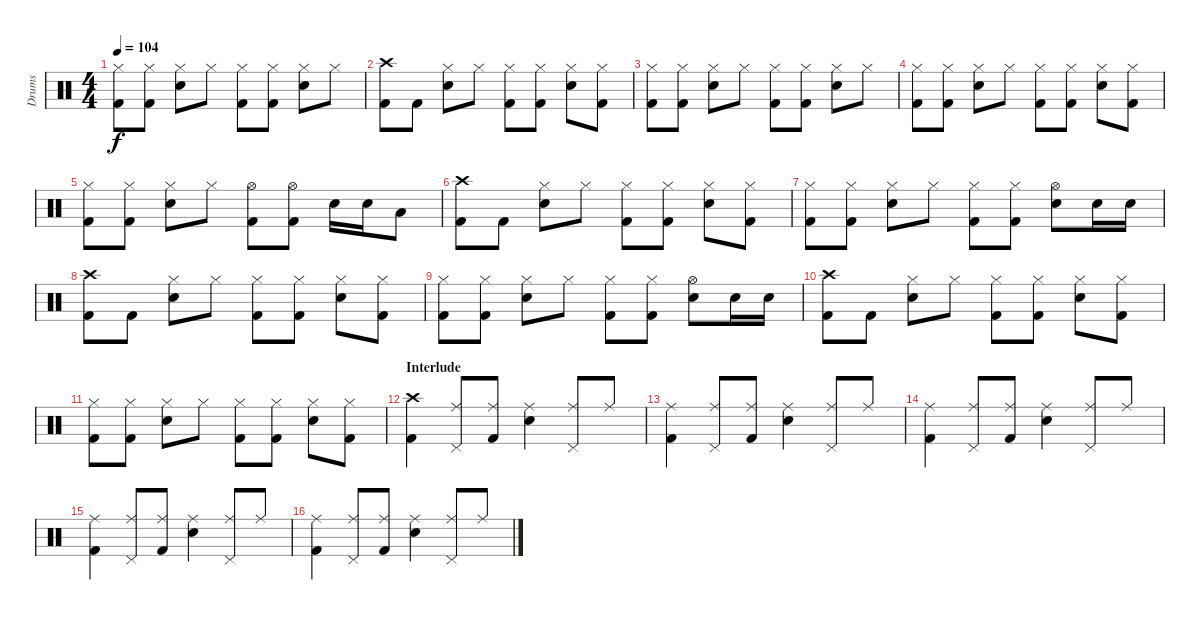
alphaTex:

\track ("Drums" "Drums") {instrument percussion}
\staff {score}
\articulation defaults
\ts (4 4)
\tempo 104
\clef neutral
\ks c
("Hi-Hat (closed)" "Kick (hit) 2").8{dy f} ("Hi-Hat (closed)" "Kick (hit) 2").8 ("Hi-Hat (closed)" "Electric Snare (hit)").8 "Hi-Hat (closed)".8 ("Hi-Hat (closed)" "Kick (hit) 2").8 ("Hi-Hat (closed)" "Kick (hit) 2").8 ("Hi-Hat (closed)" "Electric Snare (hit)").8 "Hi-Hat (closed)".8 |
("Crash high (hit)" "Kick (hit) 2").8 "Kick (hit) 2".8 ("Hi-Hat (closed)" "Electric Snare (hit)").8 "Hi-Hat (closed)".8 ("Hi-Hat (closed)" "Kick (hit) 2").8 ("Hi-Hat (closed)" "Kick (hit) 2").8 ("Hi-Hat (closed)" "Electric Snare (hit)").8 ("Hi-Hat (closed)" "Kick (hit) 2").8 |
("Hi-Hat (closed)" "Kick (hit) 2").8 ("Hi-Hat (closed)" "Kick (hit) 2").8 ("Hi-Hat (closed)" "Electric Snare (hit)").8 "Hi-Hat (closed)".8 ("Hi-Hat (closed)" "Kick (hit) 2").8 ("Hi-Hat (closed)" "Kick (hit) 2").8 ("Hi-Hat (closed)" "Electric Snare (hit)").8 "Hi-Hat (closed)".8 |
("Hi-Hat (closed)" "Kick (hit) 2").8 ("Hi-Hat (closed)" "Kick (hit) 2").8 ("Hi-Hat (closed)" "Electric Snare (hit)").8 "Hi-Hat (closed)".8 ("Hi-Hat (closed)" "Kick (hit) 2").8 ("Hi-Hat (closed)" "Kick (hit) 2").8 ("Hi-Hat (closed)" "Electric Snare (hit)").8 ("Hi-Hat (closed)" "Kick (hit) 2").8 |
("Hi-Hat (closed)" "Kick (hit) 2").8 ("Hi-Hat (closed)" "Kick (hit) 2").8 ("Hi-Hat (closed)" "Electric Snare (hit)").8 "Hi-Hat (closed)".8 ("Hi-Hat (open)" "Kick (hit) 2").8 ("Hi-Hat (open)" "Kick (hit) 2").8 "Electric Snare (hit)".16 "Electric Snare (hit)".16 "Low Tom (hit)".8 |
("Crash high (hit)" "Kick (hit) 2").8 "Kick (hit) 2".8 ("Hi-Hat (closed)" "Electric Snare (hit)").8 "Hi-Hat (closed)".8 ("Hi-Hat (closed)" "Kick (hit) 2").8 ("Hi-Hat (closed)" "Kick (hit) 2").8 ("Hi-Hat (closed)" "Electric Snare (hit)").8 ("Hi-Hat (closed)" "Kick (hit) 2").8 |
("Hi-Hat (closed)" "Kick (hit) 2").8 ("Hi-Hat (closed)" "Kick (hit) 2").8 ("Hi-Hat (closed)" "Electric Snare (hit)").8 "Hi-Hat (closed)".8 ("Hi-Hat (closed)" "Kick (hit) 2").8 ("Hi-Hat (closed)" "Kick (hit) 2").8 ("Hi-Hat (open)" "Electric Snare (hit)").8 "Electric Snare (hit)".16 "Electric Snare (hit)".16 |
("Crash high (hit)" "Kick (hit) 2").8 "Kick (hit) 2".8 ("Hi-Hat (closed)" "Electric Snare (hit)").8 "Hi-Hat (closed)".8 ("Hi-Hat (closed)" "Kick (hit) 2").8 ("Hi-Hat (closed)" "Kick (hit) 2").8 ("Hi-Hat (closed)" "Electric Snare (hit)").8 ("Hi-Hat (closed)" "Kick (hit) 2").8 |
("Hi-Hat (closed)" "Kick (hit) 2").8 ("Hi-Hat (closed)" "Kick (hit) 2").8 ("Hi-Hat (closed)" "Electric Snare (hit)").8 "Hi-Hat (closed)".8 ("Hi-Hat (closed)" "Kick (hit) 2").8 ("Hi-Hat (closed)" "Kick (hit) 2").8 ("Hi-Hat (open)" "Electric Snare (hit)").8 "Electric Snare (hit)".16 "Electric Snare (hit)".16 |
("Crash high (hit)" "Kick (hit) 2").8 "Kick (hit) 2".8 ("Hi-Hat (closed)" "Electric Snare (hit)").8 "Hi-Hat (closed)".8 ("Hi-Hat (closed)" "Kick (hit) 2").8 ("Hi-Hat (closed)" "Kick (hit) 2").8 ("Hi-Hat (closed)" "Electric Snare (hit)").8 ("Hi-Hat (closed)" "Kick (hit) 2").8 |
("Hi-Hat (closed)" "Kick (hit) 2").8 ("Hi-Hat (closed)" "Kick (hit) 2").8 ("Hi-Hat (closed)" "Electric Snare (hit)").8 "Hi-Hat (closed)".8 ("Hi-Hat (closed)" "Kick (hit) 2").8 ("Hi-Hat (closed)" "Kick (hit) 2").8 ("Hi-Hat (closed)" "Electric Snare (hit)").8 ("Hi-Hat (closed)" "Kick (hit) 2").8 |
\section ("" "Interlude")
("Crash high (hit)" "Kick (hit) 2").4 ("Ride (middle)" "Pedal Hi-Hat (hit)").8 ("Ride (middle)" "Kick (hit) 2").8 ("Ride (middle)" "Electric Snare (hit)").4 ("Ride (middle)" "Pedal Hi-Hat (hit)").8 "Ride (middle)".8 |
("Ride (middle)" "Kick (hit) 2").4 ("Ride (middle)" "Pedal Hi-Hat (hit)").8 ("Ride (middle)" "Kick (hit) 2").8 ("Ride (middle)" "Electric Snare (hit)").4 ("Ride (middle)" "Pedal Hi-Hat (hit)").8 "Ride (middle)".8 |
("Ride (middle)" "Kick (hit) 2").4 ("Ride (middle)" "Pedal Hi-Hat (hit)").8 ("Ride (middle)" "Kick (hit) 2").8 ("Ride (middle)" "Electric Snare (hit)").4 ("Ride (middle)" "Pedal Hi-Hat (hit)").8 "Ride (middle)".8 |
("Ride (middle)" "Kick (hit) 2").4 ("Ride (middle)" "Pedal Hi-Hat (hit)").8 ("Ride (middle)" "Kick (hit) 2").8 ("Ride (middle)" "Electric Snare (hit)").4 ("Ride (middle)" "Pedal Hi-Hat (hit)").8 "Ride (middle)".8 |
("Ride (middle)" "Kick (hit) 2").4 ("Ride (middle)" "Pedal Hi-Hat (hit)").8 ("Ride (middle)" "Kick (hit) 2").8 ("Ride (middle)" "Electric Snare (hit)").4 ("Ride (middle)" "Pedal Hi-Hat (hit)").8 "Ride (middle)".8
